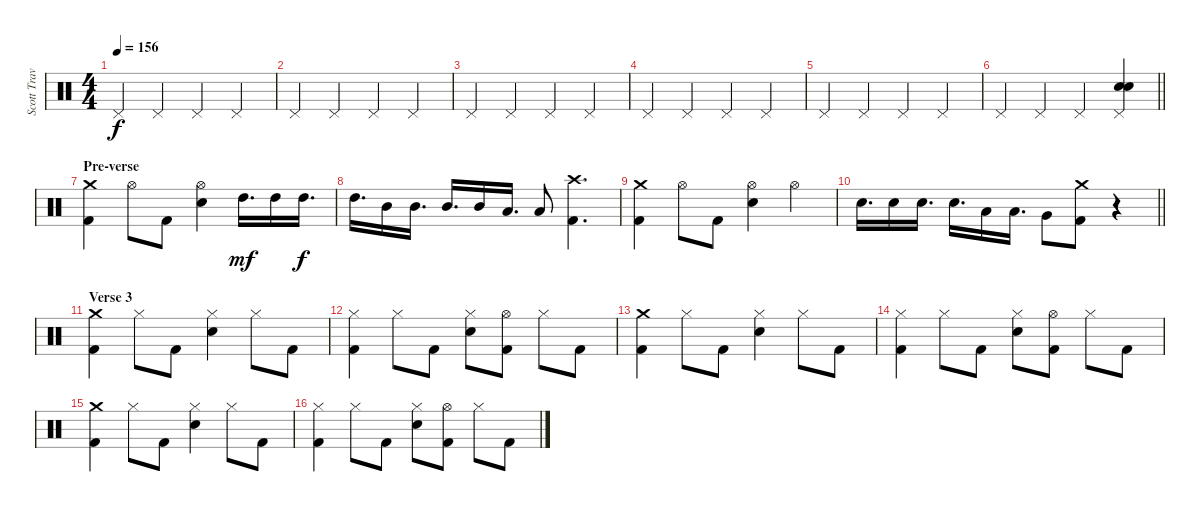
\track ("Scott Travis" "Scott Trav") {instrument percussion}
\staff {score}
\articulation defaults
\ts (4 4)
\tempo 156
\clef neutral
\ks c "Pedal Hi-Hat (hit)".4{dy f} "Pedal Hi-Hat (hit)".4 "Pedal Hi-Hat (hit)".4 "Pedal Hi-Hat (hit)".4
|
"Pedal Hi-Hat (hit)".4 "Pedal Hi-Hat (hit)".4 "Pedal Hi-Hat (hit)".4 "Pedal Hi-Hat (hit)".4 |
"Pedal Hi-Hat (hit)".4 "Pedal Hi-Hat (hit)".4 "Pedal Hi-Hat (hit)".4 "Pedal Hi-Hat (hit)".4 |
"Pedal Hi-Hat (hit)".4 "Pedal Hi-Hat (hit)".4 "Pedal Hi-Hat (hit)".4 "Pedal Hi-Hat (hit)".4 |
"Pedal Hi-Hat (hit)".4 "Pedal Hi-Hat (hit)".4 "Pedal Hi-Hat (hit)".4 "Pedal Hi-Hat (hit)".4 |
\barLineRight lightlight "Pedal Hi-Hat (hit)".4 "Pedal Hi-Hat (hit)".4 "Pedal Hi-Hat (hit)".4
("Snare (hit) 2" "Snare (hit) 2" "Pedal Hi-Hat (hit)").4 |
\section ("" "Pre-verse")
("Kick (hit) 2" "Crash medium (hit)").4 "Hi-Hat (open)".8 "Kick (hit) 2".8 ("Hi-Hat (open)" "Snare (hit) 2").4 "High Tom (hit)".16{d dy mf} "High Tom (hit)".16 "High Tom (hit)".16{d dy f} |
"High Tom (hit)".16{d} "Mid Tom (hit)".16 "Mid Tom (hit)".16{d} "Mid Tom (hit)".16{d} "Mid Tom (hit)".16 "Low Tom (hit)".16{d} "Low Tom (hit)".8 ("Crash high (hit)" "Kick (hit) 2").4{d} |
("Kick (hit) 2" "Crash medium (hit)").4 "Hi-Hat (open)".8 "Kick (hit) 2".8 ("Snare (hit) 2" "Hi-Hat (open)").4 "Hi-Hat (open)".4 |
\barLineRight lightlight "Snare (hit) 2".16{d} "Snare (hit) 2".16 "Snare (hit) 2".16{d} "Snare (hit) 2".16{d} "Low Tom (hit)".16 "Low Tom (hit)".16{d} "Very Low Tom (hit)".8
("Kick (hit) 2" "Crash medium (hit)").8 r.4 |
\section ("" "Verse 3")
("Crash medium (hit)" "Kick (hit) 2").4 "Hi-Hat (closed)".8 "Kick (hit) 2".8 ("Hi-Hat (closed)" "Snare (hit) 2").4 "Hi-Hat (closed)".8 "Kick (hit) 2".8 |
("Hi-Hat (closed)" "Kick (hit) 2").4 "Hi-Hat (closed)".8 "Kick (hit) 2".8 ("Hi-Hat (closed)" "Snare (hit) 2").8 ("Hi-Hat (open)" "Kick (hit) 2").8 "Hi-Hat (closed)".8 "Kick (hit) 2".8 |
("Crash medium (hit)" "Kick (hit) 2").4 "Hi-Hat (closed)".8 "Kick (hit) 2".8 ("Hi-Hat (closed)" "Snare (hit) 2").4 "Hi-Hat (closed)".8 "Kick (hit) 2".8 |
("Hi-Hat (closed)" "Kick (hit) 2").4 "Hi-Hat (closed)".8 "Kick (hit) 2".8 ("Hi-Hat (closed)" "Snare (hit) 2").8 ("Hi-Hat (open)" "Kick (hit) 2").8 "Hi-Hat (closed)".8 "Kick (hit) 2".8 |
("Crash medium (hit)" "Kick (hit) 2").4 "Hi-Hat (closed)".8 "Kick (hit) 2".8 ("Hi-Hat (closed)" "Snare (hit) 2").4 "Hi-Hat (closed)".8 "Kick (hit) 2".8 |
("Hi-Hat (closed)" "Kick (hit) 2").4 "Hi-Hat (closed)".8 "Kick (hit) 2".8 ("Hi-Hat (closed)" "Snare (hit) 2").8 ("Hi-Hat (open)" "Kick (hit) 2").8 "Hi-Hat (closed)".8 "Kick (hit) 2".8
